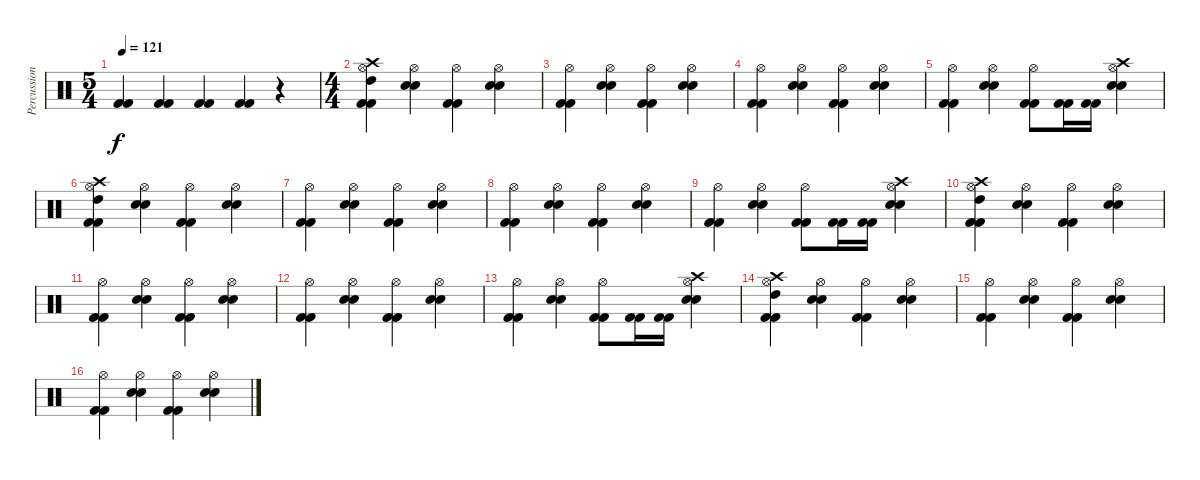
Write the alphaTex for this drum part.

\track ("Percussion" "Percussion") {instrument percussion}
\staff {score}
\articulation defaults
\ts (5 4)
\tempo 121
\clef neutral
\ks c
("Kick (hit) 2" "Kick (hit) 2").4{dy f} ("Kick (hit) 2" "Kick (hit) 2").4 ("Kick (hit) 2" "Kick (hit) 2").4 ("Kick (hit) 2" "Kick (hit) 2").4 r.4 |
\ts (4 4)
("Crash high (hit)" "High Tom (hit)" "Hi-Hat (open)" "Kick (hit) 2" "Kick (hit) 2").4 ("Hi-Hat (open)" "Electric Snare (hit)" "Electric Snare (hit)").4 ("Hi-Hat (open)" "Kick (hit) 2" "Kick (hit) 2").4 ("Hi-Hat (open)" "Electric Snare (hit)" "Electric Snare (hit)").4 |
("Hi-Hat (open)" "Kick (hit) 2" "Kick (hit) 2").4 ("Hi-Hat (open)" "Electric Snare (hit)" "Electric Snare (hit)").4 ("Hi-Hat (open)" "Kick (hit) 2" "Kick (hit) 2").4 ("Hi-Hat (open)" "Electric Snare (hit)" "Electric Snare (hit)").4 |
("Hi-Hat (open)" "Kick (hit) 2" "Kick (hit) 2").4 ("Hi-Hat (open)" "Electric Snare (hit)" "Electric Snare (hit)").4 ("Hi-Hat (open)" "Kick (hit) 2" "Kick (hit) 2").4 ("Hi-Hat (open)" "Electric Snare (hit)" "Electric Snare (hit)").4 |
("Hi-Hat (open)" "Kick (hit) 2" "Kick (hit) 2").4 ("Hi-Hat (open)" "Electric Snare (hit)" "Electric Snare (hit)").4 ("Hi-Hat (open)" "Kick (hit) 2" "Kick (hit) 2").8 ("Kick (hit) 2" "Kick (hit) 2").16 ("Kick (hit) 2" "Kick (hit) 2").16 ("Crash high (hit)" "Hi-Hat (open)" "Electric Snare (hit)" "Electric Snare (hit)").4 |
("Crash high (hit)" "High Tom (hit)" "Hi-Hat (open)" "Kick (hit) 2" "Kick (hit) 2").4 ("Hi-Hat (open)" "Electric Snare (hit)" "Electric Snare (hit)").4 ("Hi-Hat (open)" "Kick (hit) 2" "Kick (hit) 2").4 ("Hi-Hat (open)" "Electric Snare (hit)" "Electric Snare (hit)").4 |
("Hi-Hat (open)" "Kick (hit) 2" "Kick (hit) 2").4 ("Hi-Hat (open)" "Electric Snare (hit)" "Electric Snare (hit)").4 ("Hi-Hat (open)" "Kick (hit) 2" "Kick (hit) 2").4 ("Hi-Hat (open)" "Electric Snare (hit)" "Electric Snare (hit)").4 |
("Hi-Hat (open)" "Kick (hit) 2" "Kick (hit) 2").4 ("Hi-Hat (open)" "Electric Snare (hit)" "Electric Snare (hit)").4 ("Hi-Hat (open)" "Kick (hit) 2" "Kick (hit) 2").4 ("Hi-Hat (open)" "Electric Snare (hit)" "Electric Snare (hit)").4 |
("Hi-Hat (open)" "Kick (hit) 2" "Kick (hit) 2").4 ("Hi-Hat (open)" "Electric Snare (hit)" "Electric Snare (hit)").4 ("Hi-Hat (open)" "Kick (hit) 2" "Kick (hit) 2").8 ("Kick (hit) 2" "Kick (hit) 2").16 ("Kick (hit) 2" "Kick (hit) 2").16 ("Crash high (hit)" "Hi-Hat (open)" "Electric Snare (hit)" "Electric Snare (hit)").4 |
("Crash high (hit)" "High Tom (hit)" "Hi-Hat (open)" "Kick (hit) 2" "Kick (hit) 2").4 ("Hi-Hat (open)" "Electric Snare (hit)" "Electric Snare (hit)").4 ("Hi-Hat (open)" "Kick (hit) 2" "Kick (hit) 2").4 ("Hi-Hat (open)" "Electric Snare (hit)" "Electric Snare (hit)").4 |
("Hi-Hat (open)" "Kick (hit) 2" "Kick (hit) 2").4 ("Hi-Hat (open)" "Electric Snare (hit)" "Electric Snare (hit)").4 ("Hi-Hat (open)" "Kick (hit) 2" "Kick (hit) 2").4 ("Hi-Hat (open)" "Electric Snare (hit)" "Electric Snare (hit)").4 |
("Hi-Hat (open)" "Kick (hit) 2" "Kick (hit) 2").4 ("Hi-Hat (open)" "Electric Snare (hit)" "Electric Snare (hit)").4 ("Hi-Hat (open)" "Kick (hit) 2" "Kick (hit) 2").4 ("Hi-Hat (open)" "Electric Snare (hit)" "Electric Snare (hit)").4 |
("Hi-Hat (open)" "Kick (hit) 2" "Kick (hit) 2").4 ("Hi-Hat (open)" "Electric Snare (hit)" "Electric Snare (hit)").4 ("Hi-Hat (open)" "Kick (hit) 2" "Kick (hit) 2").8 ("Kick (hit) 2" "Kick (hit) 2").16 ("Kick (hit) 2" "Kick (hit) 2").16 ("Crash high (hit)" "Hi-Hat (open)" "Electric Snare (hit)" "Electric Snare (hit)").4 |
("Crash high (hit)" "High Tom (hit)" "Hi-Hat (open)" "Kick (hit) 2" "Kick (hit) 2").4 ("Hi-Hat (open)" "Electric Snare (hit)" "Electric Snare (hit)").4 ("Hi-Hat (open)" "Kick (hit) 2" "Kick (hit) 2").4 ("Hi-Hat (open)" "Electric Snare (hit)" "Electric Snare (hit)").4 |
("Hi-Hat (open)" "Kick (hit) 2" "Kick (hit) 2").4 ("Hi-Hat (open)" "Electric Snare (hit)" "Electric Snare (hit)").4 ("Hi-Hat (open)" "Kick (hit) 2" "Kick (hit) 2").4 ("Hi-Hat (open)" "Electric Snare (hit)" "Electric Snare (hit)").4 |
("Hi-Hat (open)" "Kick (hit) 2" "Kick (hit) 2").4 ("Hi-Hat (open)" "Electric Snare (hit)" "Electric Snare (hit)").4 ("Hi-Hat (open)" "Kick (hit) 2" "Kick (hit) 2").4 ("Hi-Hat (open)" "Electric Snare (hit)" "Electric Snare (hit)").4
